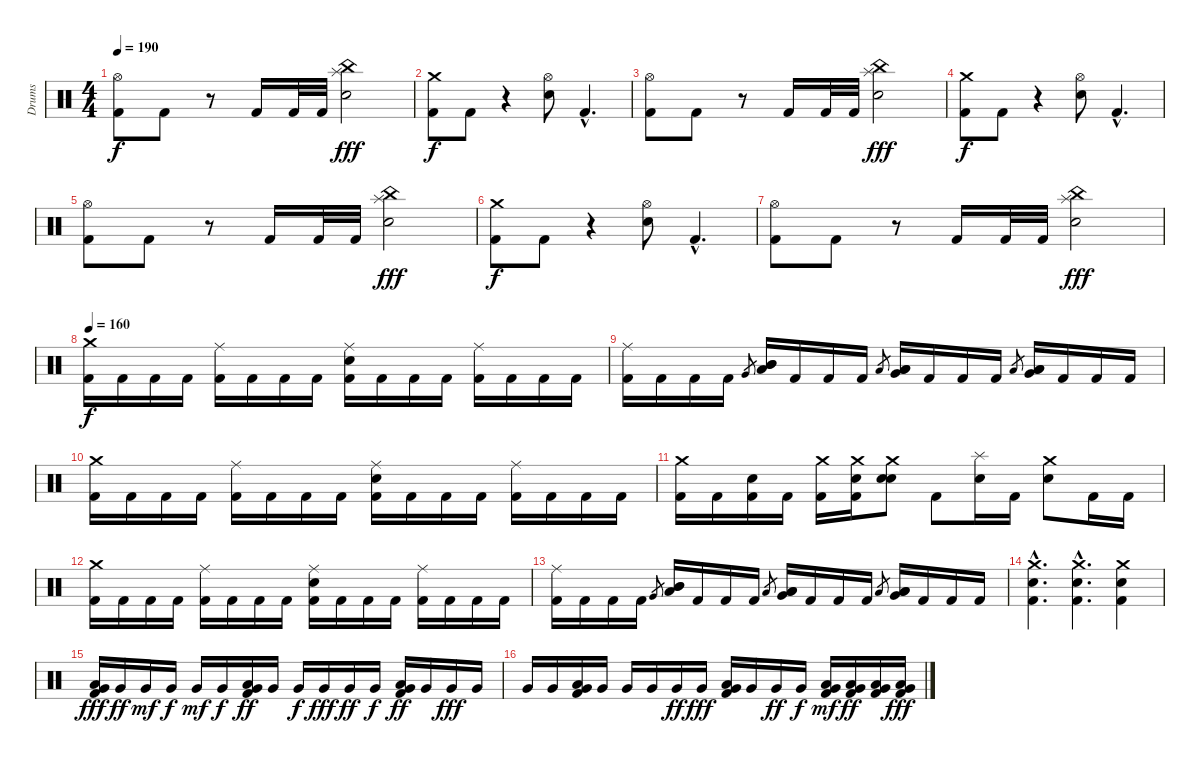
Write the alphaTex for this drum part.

\track ("Drums" "Drums") {instrument percussion}
\staff {score}
\articulation defaults
\ts (4 4)
\tempo 190
\clef neutral
\ks c
("Kick (hit) 2" "Hi-Hat (open)").8{dy f} "Kick (hit) 2".8 r.8 "Kick (hit) 2".16 "Kick (hit) 2".32 "Kick (hit) 2".32 ("China (hit)" "Splash (hit)" "Electric Snare (hit)").2{dy fff} |
("Kick (hit) 2" "Crash medium (hit)").8{dy f} "Kick (hit) 2".8 r.4 ("Electric Snare (hit)" "Hi-Hat (open)").8 "Kick (hit) 2"{hac}.4{d} |
("Kick (hit) 2" "Hi-Hat (open)").8 "Kick (hit) 2".8 r.8 "Kick (hit) 2".16 "Kick (hit) 2".32 "Kick (hit) 2".32 ("China (hit)" "Splash (hit)" "Electric Snare (hit)").2{dy fff} |
("Kick (hit) 2" "Crash medium (hit)").8{dy f} "Kick (hit) 2".8 r.4 ("Electric Snare (hit)" "Hi-Hat (open)").8 "Kick (hit) 2"{hac}.4{d} |
("Kick (hit) 2" "Hi-Hat (open)").8 "Kick (hit) 2".8 r.8 "Kick (hit) 2".16 "Kick (hit) 2".32 "Kick (hit) 2".32 ("China (hit)" "Splash (hit)" "Electric Snare (hit)").2{dy fff} |
("Kick (hit) 2" "Crash medium (hit)").8{dy f} "Kick (hit) 2".8 r.4 ("Electric Snare (hit)" "Hi-Hat (open)").8 "Kick (hit) 2"{hac}.4{d} |
("Kick (hit) 2" "Hi-Hat (open)").8 "Kick (hit) 2".8 r.8 "Kick (hit) 2".16 "Kick (hit) 2".32 "Kick (hit) 2".32 ("China (hit)" "Splash (hit)" "Electric Snare (hit)").2{dy fff} |
\tempo 160
("Crash medium (hit)" "Kick (hit) 2").16{dy f} "Kick (hit) 2".16 "Kick (hit) 2".16 "Kick (hit) 2".16 ("Ride (middle)" "Kick (hit) 2").16 "Kick (hit) 2".16 "Kick (hit) 2".16 "Kick (hit) 2".16 ("Ride (middle)" "Kick (hit) 2" "Electric Snare (hit)").16 "Kick (hit) 2".16 "Kick (hit) 2".16 "Kick (hit) 2".16 ("Ride (middle)" "Kick (hit) 2").16 "Kick (hit) 2".16 "Kick (hit) 2".16 "Kick (hit) 2".16 |
("Ride (middle)" "Kick (hit) 2").16 "Kick (hit) 2".16 "Kick (hit) 2".16 "Kick (hit) 2".16 "Very Low Tom (hit)".8{gr} ("Mid Tom (hit)" "Mid Tom (hit)" "Low Tom (hit)").16 "Kick (hit) 2".16 "Kick (hit) 2".16 "Kick (hit) 2".16 "Low Floor Tom (hit)".8{gr} ("Low Tom (hit)" "Low Tom (hit)" "Very Low Tom (hit)").16 "Kick (hit) 2".16 "Kick (hit) 2".16 "Kick (hit) 2".16 "Low Floor Tom (hit)".8{gr} ("Low Tom (hit)" "Very Low Tom (hit)" "Low Floor Tom (hit)").16 "Kick (hit) 2".16 "Kick (hit) 2".16 "Kick (hit) 2".16 |
("Crash medium (hit)" "Kick (hit) 2").16 "Kick (hit) 2".16 "Kick (hit) 2".16 "Kick (hit) 2".16 ("Ride (middle)" "Kick (hit) 2").16 "Kick (hit) 2".16 "Kick (hit) 2".16 "Kick (hit) 2".16 ("Ride (middle)" "Kick (hit) 2" "Electric Snare (hit)").16 "Kick (hit) 2".16 "Kick (hit) 2".16 "Kick (hit) 2".16 ("Ride (middle)" "Kick (hit) 2").16 "Kick (hit) 2".16 "Kick (hit) 2".16 "Kick (hit) 2".16 |
("Crash medium (hit)" "Kick (hit) 2").16 "Kick (hit) 2".16 ("Kick (hit) 2" "Electric Snare (hit)").16 "Kick (hit) 2".16 ("Crash medium (hit)" "Kick (hit) 2").16 ("Crash medium (hit)" "Kick (hit) 2" "Electric Snare (hit)").16 ("Crash medium (hit)" "Electric Snare (hit)" "Electric Snare (hit)").8 "Kick (hit) 2".8 ("Splash (hit)" "Electric Snare (hit)").16 "Kick (hit) 2".16 ("Crash medium (hit)" "Electric Snare (hit)").8 "Kick (hit) 2".16 "Kick (hit) 2".16 |
("Crash medium (hit)" "Kick (hit) 2").16 "Kick (hit) 2".16 "Kick (hit) 2".16 "Kick (hit) 2".16 ("Ride (middle)" "Kick (hit) 2").16 "Kick (hit) 2".16 "Kick (hit) 2".16 "Kick (hit) 2".16 ("Ride (middle)" "Kick (hit) 2" "Electric Snare (hit)").16 "Kick (hit) 2".16 "Kick (hit) 2".16 "Kick (hit) 2".16 ("Ride (middle)" "Kick (hit) 2").16 "Kick (hit) 2".16 "Kick (hit) 2".16 "Kick (hit) 2".16 |
("Ride (middle)" "Kick (hit) 2").16 "Kick (hit) 2".16 "Kick (hit) 2".16 "Kick (hit) 2".16 "Very Low Tom (hit)".8{gr} ("Mid Tom (hit)" "Mid Tom (hit)" "Low Tom (hit)").16 "Kick (hit) 2".16 "Kick (hit) 2".16 "Kick (hit) 2".16 "Low Floor Tom (hit)".8{gr} ("Low Tom (hit)" "Low Tom (hit)" "Very Low Tom (hit)").16 "Kick (hit) 2".16 "Kick (hit) 2".16 "Kick (hit) 2".16 "Low Floor Tom (hit)".8{gr} ("Low Tom (hit)" "Very Low Tom (hit)" "Low Floor Tom (hit)").16 "Kick (hit) 2".16 "Kick (hit) 2".16 "Kick (hit) 2".16 |
("Crash medium (hit)"{hac} "Kick (hit) 2"{hac} "Electric Snare (hit)"{hac}).4{d} ("Crash medium (hit)"{hac} "Kick (hit) 2"{hac} "Electric Snare (hit)"{hac}).4{d} ("Crash medium (hit)" "Kick (hit) 2" "Electric Snare (hit)").4 |
("Low Floor Tom (hit)" "Very Low Tom (hit)" "Kick (hit) 2").16{dy fff} "Very Low Tom (hit)".16{dy ff} "Very Low Tom (hit)".16{dy mf} "Very Low Tom (hit)".16{dy f} "Very Low Tom (hit)".16{dy mf} "Very Low Tom (hit)".16{dy f} ("Low Floor Tom (hit)" "Very Low Tom (hit)" "Kick (hit) 2").16{dy ff} "Very Low Tom (hit)".16 "Very Low Tom (hit)".16{dy f} "Very Low Tom (hit)".16{dy fff} "Very Low Tom (hit)".16{dy ff} "Very Low Tom (hit)".16{dy f} ("Low Floor Tom (hit)" "Very Low Tom (hit)" "Kick (hit) 2").16{dy ff} "Very Low Tom (hit)".16 "Very Low Tom (hit)".16{dy fff} "Very Low Tom (hit)".16 |
"Very Low Tom (hit)".16 "Very Low Tom (hit)".16 ("Low Floor Tom (hit)" "Very Low Tom (hit)" "Kick (hit) 2").16 "Very Low Tom (hit)".16 "Very Low Tom (hit)".16 "Very Low Tom (hit)".16 "Very Low Tom (hit)".16{dy ff} "Very Low Tom (hit)".16{dy fff} ("Kick (hit) 2" "Very Low Tom (hit)" "Low Floor Tom (hit)").16 "Very Low Tom (hit)".16 "Very Low Tom (hit)".16{dy ff} "Very Low Tom (hit)".16{dy f} ("Kick (hit) 2" "Very Low Tom (hit)" "Low Floor Tom (hit)").16{dy mf} ("Low Floor Tom (hit)" "Very Low Tom (hit)" "Kick (hit) 2").16{dy ff} ("Low Floor Tom (hit)" "Very Low Tom (hit)" "Kick (hit) 2").16 ("Low Floor Tom (hit)" "Very Low Tom (hit)" "Kick (hit) 2").16{dy fff}
